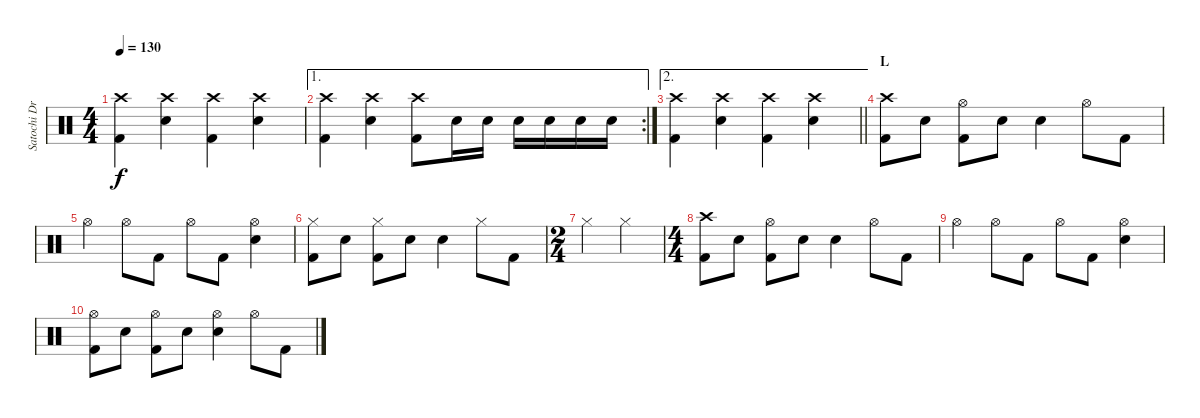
\track ("Satochi Drums" "Satochi Dr") {instrument percussion}
\staff {score}
\articulation defaults
\ts (4 4)
\tempo 130
\clef neutral
\ks c
("Crash high (hit)" "Kick (hit) 2").4{dy f} ("Crash high (hit)" "Snare (hit) 2").4 ("Crash high (hit)" "Kick (hit) 2").4 ("Crash high (hit)" "Snare (hit) 2").4 |
\ae 1
\rc 2
("Crash high (hit)" "Kick (hit) 2").4 ("Crash high (hit)" "Snare (hit) 2").4 ("Crash high (hit)" "Kick (hit) 2").8 "Snare (hit) 2".16 "Snare (hit) 2".16 "Snare (hit) 2".16 "Snare (hit) 2".16 "Snare (hit) 2".16 "Snare (hit) 2".16 |
\ae 2
\barLineRight lightlight
("Crash high (hit)" "Kick (hit) 2").4 ("Crash high (hit)" "Snare (hit) 2").4 ("Crash high (hit)" "Kick (hit) 2").4 ("Crash high (hit)" "Snare (hit) 2").4 |
\section ("" "L")
("Crash high (hit)" "Kick (hit) 2").8 "Snare (hit) 2".8 ("Hi-Hat (open)" "Kick (hit) 2").8 "Snare (hit) 2".8 "Snare (hit) 2".4 "Hi-Hat (open)".8 "Kick (hit) 2".8 |
"Hi-Hat (open)".4 "Hi-Hat (open)".8 "Kick (hit) 2".8 "Hi-Hat (open)".8 "Kick (hit) 2".8 ("Hi-Hat (open)" "Snare (hit) 2").4 |
("Hi-Hat (closed)" "Kick (hit) 2").8 "Snare (hit) 2".8 ("Hi-Hat (closed)" "Kick (hit) 2").8 "Snare (hit) 2".8 "Snare (hit) 2".4 "Hi-Hat (closed)".8 "Kick (hit) 2".8 |
\ts (2 4)
"Hi-Hat (closed)".4 "Hi-Hat (closed)".4 |
\ts (4 4)
("Crash high (hit)" "Kick (hit) 2").8 "Snare (hit) 2".8 ("Hi-Hat (open)" "Kick (hit) 2").8 "Snare (hit) 2".8 "Snare (hit) 2".4 "Hi-Hat (open)".8 "Kick (hit) 2".8 |
"Hi-Hat (open)".4 "Hi-Hat (open)".8 "Kick (hit) 2".8 "Hi-Hat (open)".8 "Kick (hit) 2".8 ("Hi-Hat (open)" "Snare (hit) 2").4 |
("Hi-Hat (open)" "Kick (hit) 2").8 "Snare (hit) 2".8 ("Hi-Hat (open)" "Kick (hit) 2").8 "Snare (hit) 2".8 ("Hi-Hat (open)" "Snare (hit) 2").4 "Hi-Hat (open)".8 "Kick (hit) 2".8
